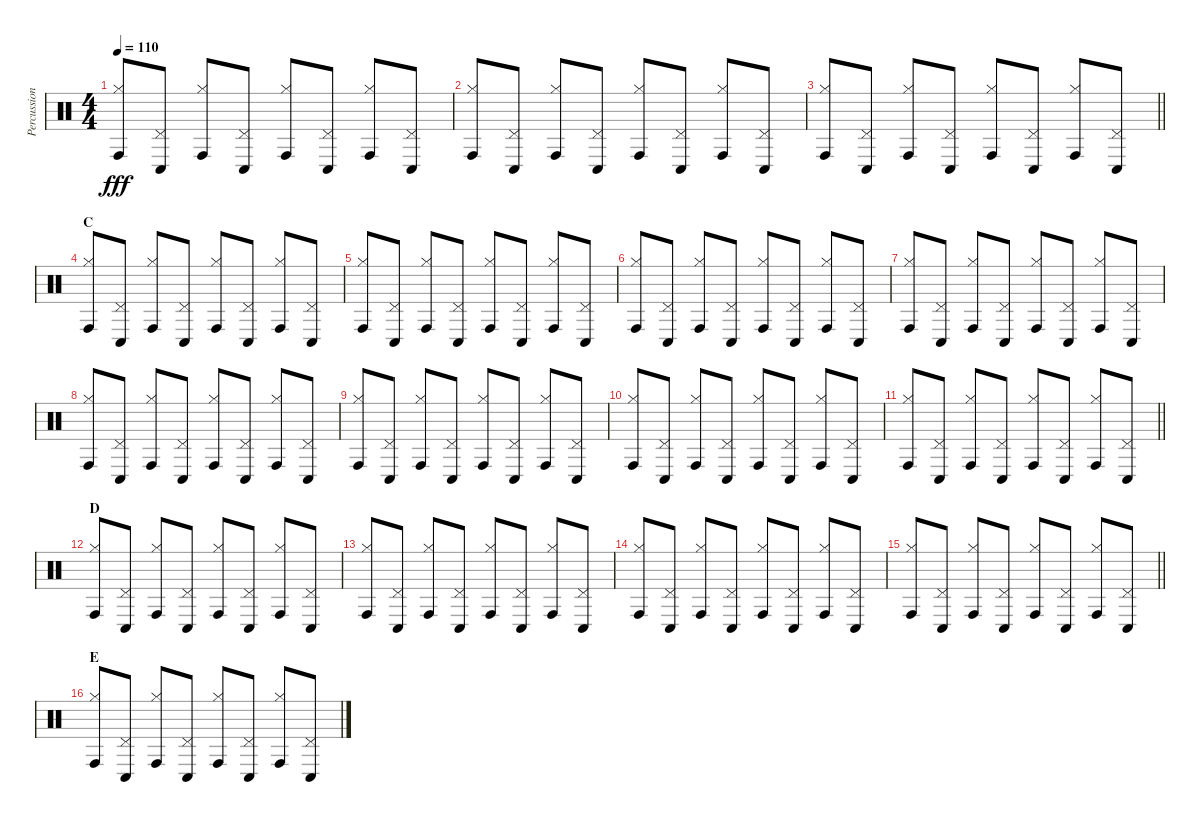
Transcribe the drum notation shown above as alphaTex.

\track ("Percussion" "Percussion") {instrument percussion}
\staff {score}
\articulation defaults
\ts (4 4)
\tempo 110
\clef neutral
\ks c
("Hi-Hat (closed)" "Conga high (hit)").8{dy fff} ("Pedal Hi-Hat (hit)" "Conga low (hit)").8 ("Hi-Hat (closed)" "Conga high (hit)").8 ("Pedal Hi-Hat (hit)" "Conga low (hit)").8 ("Hi-Hat (closed)" "Conga high (hit)").8 ("Pedal Hi-Hat (hit)" "Conga low (hit)").8 ("Hi-Hat (closed)" "Conga high (hit)").8 ("Pedal Hi-Hat (hit)" "Conga low (hit)").8 |
("Hi-Hat (closed)" "Conga high (hit)").8 ("Pedal Hi-Hat (hit)" "Conga low (hit)").8 ("Hi-Hat (closed)" "Conga high (hit)").8 ("Pedal Hi-Hat (hit)" "Conga low (hit)").8 ("Hi-Hat (closed)" "Conga high (hit)").8 ("Pedal Hi-Hat (hit)" "Conga low (hit)").8 ("Hi-Hat (closed)" "Conga high (hit)").8 ("Pedal Hi-Hat (hit)" "Conga low (hit)").8 |
\barLineRight lightlight
("Hi-Hat (closed)" "Conga high (hit)").8 ("Pedal Hi-Hat (hit)" "Conga low (hit)").8 ("Hi-Hat (closed)" "Conga high (hit)").8 ("Pedal Hi-Hat (hit)" "Conga low (hit)").8 ("Hi-Hat (closed)" "Conga high (hit)").8 ("Pedal Hi-Hat (hit)" "Conga low (hit)").8 ("Hi-Hat (closed)" "Conga high (hit)").8 ("Pedal Hi-Hat (hit)" "Conga low (hit)").8 |
\section ("" "C")
("Hi-Hat (closed)" "Conga high (hit)").8 ("Pedal Hi-Hat (hit)" "Conga low (hit)").8 ("Hi-Hat (closed)" "Conga high (hit)").8 ("Pedal Hi-Hat (hit)" "Conga low (hit)").8 ("Hi-Hat (closed)" "Conga high (hit)").8 ("Pedal Hi-Hat (hit)" "Conga low (hit)").8 ("Hi-Hat (closed)" "Conga high (hit)").8 ("Pedal Hi-Hat (hit)" "Conga low (hit)").8 |
("Hi-Hat (closed)" "Conga high (hit)").8 ("Pedal Hi-Hat (hit)" "Conga low (hit)").8 ("Hi-Hat (closed)" "Conga high (hit)").8 ("Pedal Hi-Hat (hit)" "Conga low (hit)").8 ("Hi-Hat (closed)" "Conga high (hit)").8 ("Pedal Hi-Hat (hit)" "Conga low (hit)").8 ("Hi-Hat (closed)" "Conga high (hit)").8 ("Pedal Hi-Hat (hit)" "Conga low (hit)").8 |
("Hi-Hat (closed)" "Conga high (hit)").8 ("Pedal Hi-Hat (hit)" "Conga low (hit)").8 ("Hi-Hat (closed)" "Conga high (hit)").8 ("Pedal Hi-Hat (hit)" "Conga low (hit)").8 ("Hi-Hat (closed)" "Conga high (hit)").8 ("Pedal Hi-Hat (hit)" "Conga low (hit)").8 ("Hi-Hat (closed)" "Conga high (hit)").8 ("Pedal Hi-Hat (hit)" "Conga low (hit)").8 |
("Hi-Hat (closed)" "Conga high (hit)").8 ("Pedal Hi-Hat (hit)" "Conga low (hit)").8 ("Hi-Hat (closed)" "Conga high (hit)").8 ("Pedal Hi-Hat (hit)" "Conga low (hit)").8 ("Hi-Hat (closed)" "Conga high (hit)").8 ("Pedal Hi-Hat (hit)" "Conga low (hit)").8 ("Hi-Hat (closed)" "Conga high (hit)").8 ("Pedal Hi-Hat (hit)" "Conga low (hit)").8 |
("Hi-Hat (closed)" "Conga high (hit)").8 ("Pedal Hi-Hat (hit)" "Conga low (hit)").8 ("Hi-Hat (closed)" "Conga high (hit)").8 ("Pedal Hi-Hat (hit)" "Conga low (hit)").8 ("Hi-Hat (closed)" "Conga high (hit)").8 ("Pedal Hi-Hat (hit)" "Conga low (hit)").8 ("Hi-Hat (closed)" "Conga high (hit)").8 ("Pedal Hi-Hat (hit)" "Conga low (hit)").8 |
("Hi-Hat (closed)" "Conga high (hit)").8 ("Pedal Hi-Hat (hit)" "Conga low (hit)").8 ("Hi-Hat (closed)" "Conga high (hit)").8 ("Pedal Hi-Hat (hit)" "Conga low (hit)").8 ("Hi-Hat (closed)" "Conga high (hit)").8 ("Pedal Hi-Hat (hit)" "Conga low (hit)").8 ("Hi-Hat (closed)" "Conga high (hit)").8 ("Pedal Hi-Hat (hit)" "Conga low (hit)").8 |
("Hi-Hat (closed)" "Conga high (hit)").8 ("Pedal Hi-Hat (hit)" "Conga low (hit)").8 ("Hi-Hat (closed)" "Conga high (hit)").8 ("Pedal Hi-Hat (hit)" "Conga low (hit)").8 ("Hi-Hat (closed)" "Conga high (hit)").8 ("Pedal Hi-Hat (hit)" "Conga low (hit)").8 ("Hi-Hat (closed)" "Conga high (hit)").8 ("Pedal Hi-Hat (hit)" "Conga low (hit)").8 |
\barLineRight lightlight
("Hi-Hat (closed)" "Conga high (hit)").8 ("Pedal Hi-Hat (hit)" "Conga low (hit)").8 ("Hi-Hat (closed)" "Conga high (hit)").8 ("Pedal Hi-Hat (hit)" "Conga low (hit)").8 ("Hi-Hat (closed)" "Conga high (hit)").8 ("Pedal Hi-Hat (hit)" "Conga low (hit)").8 ("Hi-Hat (closed)" "Conga high (hit)").8 ("Pedal Hi-Hat (hit)" "Conga low (hit)").8 |
\section ("" "D")
("Hi-Hat (closed)" "Conga high (hit)").8 ("Pedal Hi-Hat (hit)" "Conga low (hit)").8 ("Hi-Hat (closed)" "Conga high (hit)").8 ("Pedal Hi-Hat (hit)" "Conga low (hit)").8 ("Hi-Hat (closed)" "Conga high (hit)").8 ("Pedal Hi-Hat (hit)" "Conga low (hit)").8 ("Hi-Hat (closed)" "Conga high (hit)").8 ("Pedal Hi-Hat (hit)" "Conga low (hit)").8 |
("Hi-Hat (closed)" "Conga high (hit)").8 ("Pedal Hi-Hat (hit)" "Conga low (hit)").8 ("Hi-Hat (closed)" "Conga high (hit)").8 ("Pedal Hi-Hat (hit)" "Conga low (hit)").8 ("Hi-Hat (closed)" "Conga high (hit)").8 ("Pedal Hi-Hat (hit)" "Conga low (hit)").8 ("Hi-Hat (closed)" "Conga high (hit)").8 ("Pedal Hi-Hat (hit)" "Conga low (hit)").8 |
("Hi-Hat (closed)" "Conga high (hit)").8 ("Pedal Hi-Hat (hit)" "Conga low (hit)").8 ("Hi-Hat (closed)" "Conga high (hit)").8 ("Pedal Hi-Hat (hit)" "Conga low (hit)").8 ("Hi-Hat (closed)" "Conga high (hit)").8 ("Pedal Hi-Hat (hit)" "Conga low (hit)").8 ("Hi-Hat (closed)" "Conga high (hit)").8 ("Pedal Hi-Hat (hit)" "Conga low (hit)").8 |
\barLineRight lightlight
("Hi-Hat (closed)" "Conga high (hit)").8 ("Pedal Hi-Hat (hit)" "Conga low (hit)").8 ("Hi-Hat (closed)" "Conga high (hit)").8 ("Pedal Hi-Hat (hit)" "Conga low (hit)").8 ("Hi-Hat (closed)" "Conga high (hit)").8 ("Pedal Hi-Hat (hit)" "Conga low (hit)").8 ("Hi-Hat (closed)" "Conga high (hit)").8 ("Pedal Hi-Hat (hit)" "Conga low (hit)").8 |
\section ("" "E")
("Hi-Hat (closed)" "Conga high (hit)").8 ("Pedal Hi-Hat (hit)" "Conga low (hit)").8 ("Hi-Hat (closed)" "Conga high (hit)").8 ("Pedal Hi-Hat (hit)" "Conga low (hit)").8 ("Hi-Hat (closed)" "Conga high (hit)").8 ("Pedal Hi-Hat (hit)" "Conga low (hit)").8 ("Hi-Hat (closed)" "Conga high (hit)").8 ("Pedal Hi-Hat (hit)" "Conga low (hit)").8
